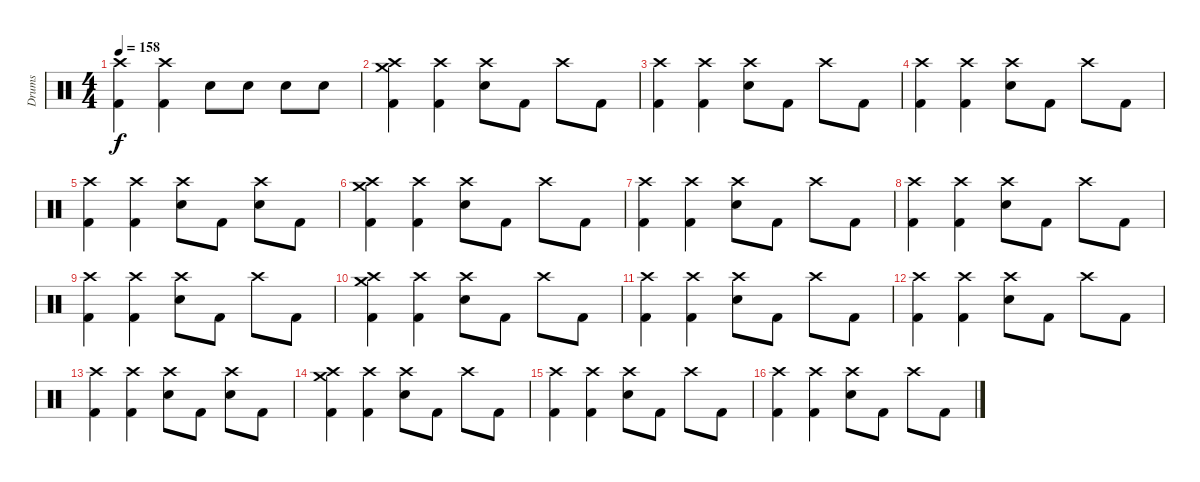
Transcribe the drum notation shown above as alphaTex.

\track ("Drums" "Drums") {instrument percussion}
\staff {score}
\articulation defaults
\ts (4 4)
\tempo 158
\clef neutral
\ks c
("Crash high (hit)" "Kick (hit) 2").4{dy f} ("Crash high (hit)" "Kick (hit) 2").4 "Electric Snare (hit)".8 "Electric Snare (hit)".8 "Electric Snare (hit)".8 "Electric Snare (hit)".8 |
("Crash medium (hit)" "Crash high (hit)" "Kick (hit) 2").4 ("Crash high (hit)" "Kick (hit) 2").4 ("Crash high (hit)" "Electric Snare (hit)").8 "Kick (hit) 2".8 "Crash high (hit)".8 "Kick (hit) 2".8 |
("Crash high (hit)" "Kick (hit) 2").4 ("Crash high (hit)" "Kick (hit) 2").4 ("Crash high (hit)" "Electric Snare (hit)").8 "Kick (hit) 2".8 "Crash high (hit)".8 "Kick (hit) 2".8 |
("Crash high (hit)" "Kick (hit) 2").4 ("Crash high (hit)" "Kick (hit) 2").4 ("Crash high (hit)" "Electric Snare (hit)").8 "Kick (hit) 2".8 "Crash high (hit)".8 "Kick (hit) 2".8 |
("Crash high (hit)" "Kick (hit) 2").4 ("Crash high (hit)" "Kick (hit) 2").4 ("Crash high (hit)" "Electric Snare (hit)").8 "Kick (hit) 2".8 ("Crash high (hit)" "Electric Snare (hit)").8 "Kick (hit) 2".8 |
("Crash medium (hit)" "Crash high (hit)" "Kick (hit) 2").4 ("Crash high (hit)" "Kick (hit) 2").4 ("Crash high (hit)" "Electric Snare (hit)").8 "Kick (hit) 2".8 "Crash high (hit)".8 "Kick (hit) 2".8 |
("Crash high (hit)" "Kick (hit) 2").4 ("Crash high (hit)" "Kick (hit) 2").4 ("Crash high (hit)" "Electric Snare (hit)").8 "Kick (hit) 2".8 "Crash high (hit)".8 "Kick (hit) 2".8 |
("Crash high (hit)" "Kick (hit) 2").4 ("Crash high (hit)" "Kick (hit) 2").4 ("Crash high (hit)" "Electric Snare (hit)").8 "Kick (hit) 2".8 "Crash high (hit)".8 "Kick (hit) 2".8 |
("Crash high (hit)" "Kick (hit) 2").4 ("Crash high (hit)" "Kick (hit) 2").4 ("Crash high (hit)" "Electric Snare (hit)").8 "Kick (hit) 2".8 "Crash high (hit)".8 "Kick (hit) 2".8 |
("Crash medium (hit)" "Crash high (hit)" "Kick (hit) 2").4 ("Crash high (hit)" "Kick (hit) 2").4 ("Crash high (hit)" "Electric Snare (hit)").8 "Kick (hit) 2".8 "Crash high (hit)".8 "Kick (hit) 2".8 |
("Crash high (hit)" "Kick (hit) 2").4 ("Crash high (hit)" "Kick (hit) 2").4 ("Crash high (hit)" "Electric Snare (hit)").8 "Kick (hit) 2".8 "Crash high (hit)".8 "Kick (hit) 2".8 |
("Crash high (hit)" "Kick (hit) 2").4 ("Crash high (hit)" "Kick (hit) 2").4 ("Crash high (hit)" "Electric Snare (hit)").8 "Kick (hit) 2".8 "Crash high (hit)".8 "Kick (hit) 2".8 |
("Crash high (hit)" "Kick (hit) 2").4 ("Crash high (hit)" "Kick (hit) 2").4 ("Crash high (hit)" "Electric Snare (hit)").8 "Kick (hit) 2".8 ("Crash high (hit)" "Electric Snare (hit)").8 "Kick (hit) 2".8 |
("Crash medium (hit)" "Crash high (hit)" "Kick (hit) 2").4 ("Crash high (hit)" "Kick (hit) 2").4 ("Crash high (hit)" "Electric Snare (hit)").8 "Kick (hit) 2".8 "Crash high (hit)".8 "Kick (hit) 2".8 |
("Crash high (hit)" "Kick (hit) 2").4 ("Crash high (hit)" "Kick (hit) 2").4 ("Crash high (hit)" "Electric Snare (hit)").8 "Kick (hit) 2".8 "Crash high (hit)".8 "Kick (hit) 2".8 |
("Crash high (hit)" "Kick (hit) 2").4 ("Crash high (hit)" "Kick (hit) 2").4 ("Crash high (hit)" "Electric Snare (hit)").8 "Kick (hit) 2".8 "Crash high (hit)".8 "Kick (hit) 2".8
